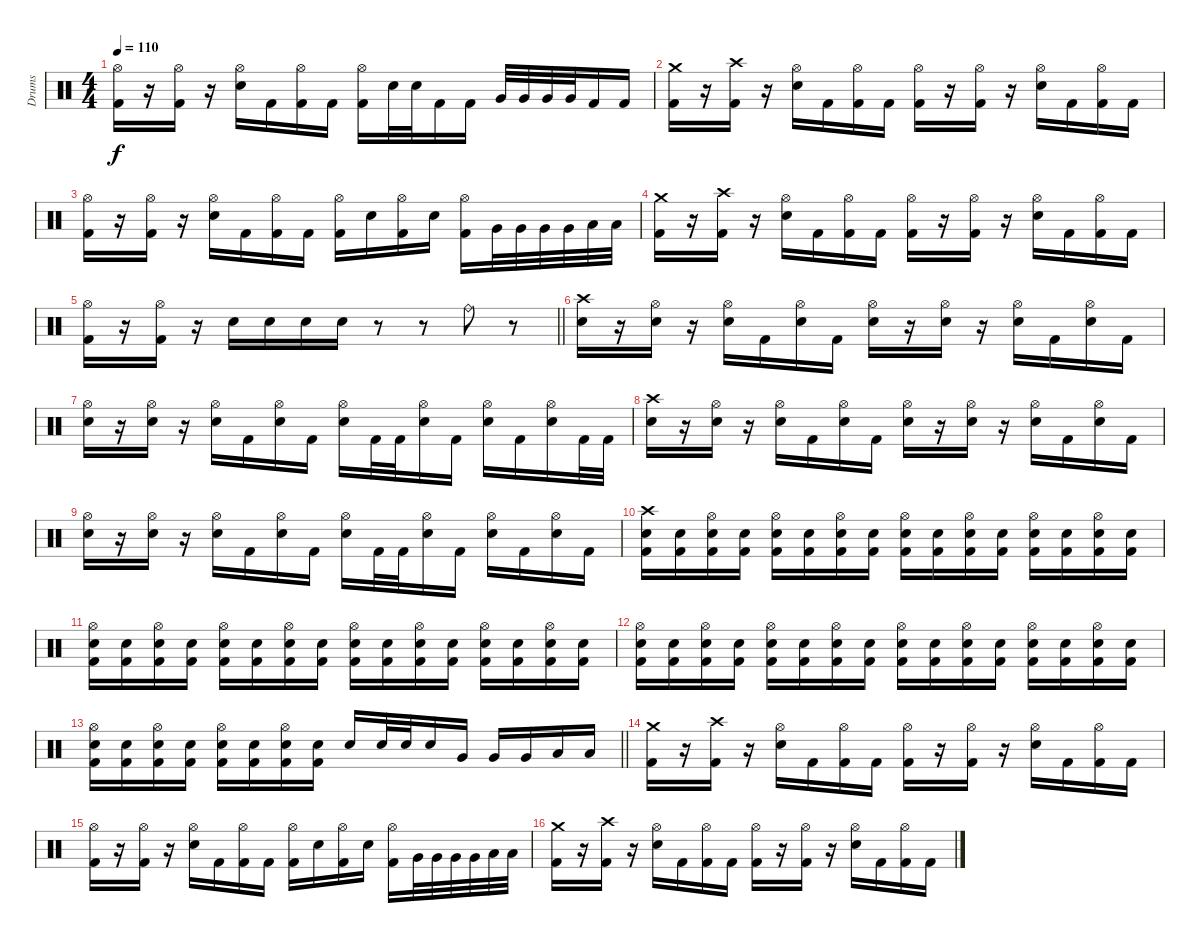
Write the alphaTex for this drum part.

\track ("Drums" "Drums") {instrument percussion}
\staff {score}
\articulation defaults
\ts (4 4)
\tempo 110
\clef neutral
\ks c
("Hi-Hat (open)" "Kick (hit) 2").16{dy f} r.16 ("Hi-Hat (open)" "Kick (hit) 2").16 r.16 ("Hi-Hat (open)" "Electric Snare (hit)").16 "Kick (hit) 2".16 ("Hi-Hat (open)" "Kick (hit) 2").16 "Kick (hit) 2".16 ("Hi-Hat (open)" "Kick (hit) 2").16 "Electric Snare (hit)".32 "Electric Snare (hit)".32 "Kick (hit) 2".16 "Kick (hit) 2".16 "Very Low Tom (hit)".32 "Very Low Tom (hit)".32 "Very Low Tom (hit)".32 "Very Low Tom (hit)".32 "Kick (hit) 2".16 "Kick (hit) 2".16 |
("Crash medium (hit)" "Kick (hit) 2").16 r.16 ("Crash high (hit)" "Kick (hit) 2").16 r.16 ("Hi-Hat (open)" "Electric Snare (hit)").16 "Kick (hit) 2".16 ("Hi-Hat (open)" "Kick (hit) 2").16 "Kick (hit) 2".16 ("Hi-Hat (open)" "Kick (hit) 2").16 r.16 ("Hi-Hat (open)" "Kick (hit) 2").16 r.16 ("Hi-Hat (open)" "Electric Snare (hit)").16 "Kick (hit) 2".16 ("Hi-Hat (open)" "Kick (hit) 2").16 "Kick (hit) 2".16 |
("Hi-Hat (open)" "Kick (hit) 2").16 r.16 ("Hi-Hat (open)" "Kick (hit) 2").16 r.16 ("Hi-Hat (open)" "Electric Snare (hit)").16 "Kick (hit) 2".16 ("Hi-Hat (open)" "Kick (hit) 2").16 "Kick (hit) 2".16 ("Hi-Hat (open)" "Kick (hit) 2").16 "Electric Snare (hit)".16 ("Hi-Hat (open)" "Kick (hit) 2").16 "Electric Snare (hit)".16 ("Hi-Hat (open)" "Kick (hit) 2").16 "Very Low Tom (hit)".32 "Very Low Tom (hit)".32 "Very Low Tom (hit)".32 "Very Low Tom (hit)".32 "Low Floor Tom (hit)".32 "Low Floor Tom (hit)".32 |
("Crash medium (hit)" "Kick (hit) 2").16 r.16 ("Crash high (hit)" "Kick (hit) 2").16 r.16 ("Hi-Hat (open)" "Electric Snare (hit)").16 "Kick (hit) 2".16 ("Hi-Hat (open)" "Kick (hit) 2").16 "Kick (hit) 2".16 ("Hi-Hat (open)" "Kick (hit) 2").16 r.16 ("Hi-Hat (open)" "Kick (hit) 2").16 r.16 ("Hi-Hat (open)" "Electric Snare (hit)").16 "Kick (hit) 2".16 ("Hi-Hat (open)" "Kick (hit) 2").16 "Kick (hit) 2".16 |
\barLineRight lightlight
("Hi-Hat (open)" "Kick (hit) 2").16 r.16 ("Hi-Hat (open)" "Kick (hit) 2").16 r.16 "Electric Snare (hit)".16 "Electric Snare (hit)".16 "Electric Snare (hit)".16 "Electric Snare (hit)".16 r.8 r.8 "Ride (bell)".8 r.8 |
("Crash high (hit)" "Electric Snare (hit)").16 r.16 ("Hi-Hat (open)" "Electric Snare (hit)").16 r.16 ("Hi-Hat (open)" "Electric Snare (hit)").16 "Kick (hit) 2".16 ("Hi-Hat (open)" "Electric Snare (hit)").16 "Kick (hit) 2".16 ("Hi-Hat (open)" "Electric Snare (hit)").16 r.16 ("Hi-Hat (open)" "Electric Snare (hit)").16 r.16 ("Hi-Hat (open)" "Electric Snare (hit)").16 "Kick (hit) 2".16 ("Hi-Hat (open)" "Electric Snare (hit)").16 "Kick (hit) 2".16 |
("Hi-Hat (open)" "Electric Snare (hit)").16 r.16 ("Hi-Hat (open)" "Electric Snare (hit)").16 r.16 ("Hi-Hat (open)" "Electric Snare (hit)").16 "Kick (hit) 2".16 ("Hi-Hat (open)" "Electric Snare (hit)").16 "Kick (hit) 2".16 ("Hi-Hat (open)" "Electric Snare (hit)").16 "Kick (hit) 2".32 "Kick (hit) 2".32 ("Hi-Hat (open)" "Electric Snare (hit)").16 "Kick (hit) 2".16 ("Hi-Hat (open)" "Electric Snare (hit)").16 "Kick (hit) 2".16 ("Hi-Hat (open)" "Electric Snare (hit)").16 "Kick (hit) 2".32 "Kick (hit) 2".32 |
("Crash high (hit)" "Electric Snare (hit)").16 r.16 ("Hi-Hat (open)" "Electric Snare (hit)").16 r.16 ("Hi-Hat (open)" "Electric Snare (hit)").16 "Kick (hit) 2".16 ("Hi-Hat (open)" "Electric Snare (hit)").16 "Kick (hit) 2".16 ("Hi-Hat (open)" "Electric Snare (hit)").16 r.16 ("Hi-Hat (open)" "Electric Snare (hit)").16 r.16 ("Hi-Hat (open)" "Electric Snare (hit)").16 "Kick (hit) 2".16 ("Hi-Hat (open)" "Electric Snare (hit)").16 "Kick (hit) 2".16 |
("Hi-Hat (open)" "Electric Snare (hit)").16 r.16 ("Hi-Hat (open)" "Electric Snare (hit)").16 r.16 ("Hi-Hat (open)" "Electric Snare (hit)").16 "Kick (hit) 2".16 ("Hi-Hat (open)" "Electric Snare (hit)").16 "Kick (hit) 2".16 ("Hi-Hat (open)" "Electric Snare (hit)").16 "Kick (hit) 2".32 "Kick (hit) 2".32 ("Hi-Hat (open)" "Electric Snare (hit)").16 "Kick (hit) 2".16 ("Hi-Hat (open)" "Electric Snare (hit)").16 "Kick (hit) 2".16 ("Hi-Hat (open)" "Electric Snare (hit)").16 "Kick (hit) 2".16 |
("Crash high (hit)" "Electric Snare (hit)" "Kick (hit) 2").16 ("Electric Snare (hit)" "Kick (hit) 2").16 ("Hi-Hat (open)" "Electric Snare (hit)" "Kick (hit) 2").16 ("Electric Snare (hit)" "Kick (hit) 2").16 ("Hi-Hat (open)" "Electric Snare (hit)" "Kick (hit) 2").16 ("Electric Snare (hit)" "Kick (hit) 2").16 ("Hi-Hat (open)" "Electric Snare (hit)" "Kick (hit) 2").16 ("Electric Snare (hit)" "Kick (hit) 2").16 ("Hi-Hat (open)" "Electric Snare (hit)" "Kick (hit) 2").16 ("Electric Snare (hit)" "Kick (hit) 2").16 ("Hi-Hat (open)" "Electric Snare (hit)" "Kick (hit) 2").16 ("Electric Snare (hit)" "Kick (hit) 2").16 ("Hi-Hat (open)" "Electric Snare (hit)" "Kick (hit) 2").16 ("Electric Snare (hit)" "Kick (hit) 2").16 ("Hi-Hat (open)" "Electric Snare (hit)" "Kick (hit) 2").16 ("Electric Snare (hit)" "Kick (hit) 2").16 |
("Hi-Hat (open)" "Electric Snare (hit)" "Kick (hit) 2").16 ("Electric Snare (hit)" "Kick (hit) 2").16 ("Hi-Hat (open)" "Electric Snare (hit)" "Kick (hit) 2").16 ("Electric Snare (hit)" "Kick (hit) 2").16 ("Hi-Hat (open)" "Electric Snare (hit)" "Kick (hit) 2").16 ("Electric Snare (hit)" "Kick (hit) 2").16 ("Hi-Hat (open)" "Electric Snare (hit)" "Kick (hit) 2").16 ("Electric Snare (hit)" "Kick (hit) 2").16 ("Hi-Hat (open)" "Electric Snare (hit)" "Kick (hit) 2").16 ("Electric Snare (hit)" "Kick (hit) 2").16 ("Hi-Hat (open)" "Electric Snare (hit)" "Kick (hit) 2").16 ("Electric Snare (hit)" "Kick (hit) 2").16 ("Hi-Hat (open)" "Electric Snare (hit)" "Kick (hit) 2").16 ("Electric Snare (hit)" "Kick (hit) 2").16 ("Hi-Hat (open)" "Electric Snare (hit)" "Kick (hit) 2").16 ("Electric Snare (hit)" "Kick (hit) 2").16 |
("Hi-Hat (open)" "Electric Snare (hit)" "Kick (hit) 2").16 ("Electric Snare (hit)" "Kick (hit) 2").16 ("Hi-Hat (open)" "Electric Snare (hit)" "Kick (hit) 2").16 ("Electric Snare (hit)" "Kick (hit) 2").16 ("Hi-Hat (open)" "Electric Snare (hit)" "Kick (hit) 2").16 ("Electric Snare (hit)" "Kick (hit) 2").16 ("Hi-Hat (open)" "Electric Snare (hit)" "Kick (hit) 2").16 ("Electric Snare (hit)" "Kick (hit) 2").16 ("Hi-Hat (open)" "Electric Snare (hit)" "Kick (hit) 2").16 ("Electric Snare (hit)" "Kick (hit) 2").16 ("Hi-Hat (open)" "Electric Snare (hit)" "Kick (hit) 2").16 ("Electric Snare (hit)" "Kick (hit) 2").16 ("Hi-Hat (open)" "Electric Snare (hit)" "Kick (hit) 2").16 ("Electric Snare (hit)" "Kick (hit) 2").16 ("Hi-Hat (open)" "Electric Snare (hit)" "Kick (hit) 2").16 ("Electric Snare (hit)" "Kick (hit) 2").16 |
\barLineRight lightlight
("Hi-Hat (open)" "Electric Snare (hit)" "Kick (hit) 2").16 ("Electric Snare (hit)" "Kick (hit) 2").16 ("Hi-Hat (open)" "Electric Snare (hit)" "Kick (hit) 2").16 ("Electric Snare (hit)" "Kick (hit) 2").16 ("Hi-Hat (open)" "Electric Snare (hit)" "Kick (hit) 2").16 ("Electric Snare (hit)" "Kick (hit) 2").16 ("Hi-Hat (open)" "Electric Snare (hit)" "Kick (hit) 2").16 ("Electric Snare (hit)" "Kick (hit) 2").16 "Electric Snare (hit)".16 "Electric Snare (hit)".32 "Electric Snare (hit)".32 "Electric Snare (hit)".16 "Very Low Tom (hit)".16 "Very Low Tom (hit)".16 "Very Low Tom (hit)".16 "Low Floor Tom (hit)".16 "Low Floor Tom (hit)".16 |
("Crash medium (hit)" "Kick (hit) 2").16 r.16 ("Crash high (hit)" "Kick (hit) 2").16 r.16 ("Hi-Hat (open)" "Electric Snare (hit)").16 "Kick (hit) 2".16 ("Hi-Hat (open)" "Kick (hit) 2").16 "Kick (hit) 2".16 ("Hi-Hat (open)" "Kick (hit) 2").16 r.16 ("Hi-Hat (open)" "Kick (hit) 2").16 r.16 ("Hi-Hat (open)" "Electric Snare (hit)").16 "Kick (hit) 2".16 ("Hi-Hat (open)" "Kick (hit) 2").16 "Kick (hit) 2".16 |
("Hi-Hat (open)" "Kick (hit) 2").16 r.16 ("Hi-Hat (open)" "Kick (hit) 2").16 r.16 ("Hi-Hat (open)" "Electric Snare (hit)").16 "Kick (hit) 2".16 ("Hi-Hat (open)" "Kick (hit) 2").16 "Kick (hit) 2".16 ("Hi-Hat (open)" "Kick (hit) 2").16 "Electric Snare (hit)".16 ("Hi-Hat (open)" "Kick (hit) 2").16 "Electric Snare (hit)".16 ("Hi-Hat (open)" "Kick (hit) 2").16 "Very Low Tom (hit)".32 "Very Low Tom (hit)".32 "Very Low Tom (hit)".32 "Very Low Tom (hit)".32 "Low Floor Tom (hit)".32 "Low Floor Tom (hit)".32 |
("Crash medium (hit)" "Kick (hit) 2").16 r.16 ("Crash high (hit)" "Kick (hit) 2").16 r.16 ("Hi-Hat (open)" "Electric Snare (hit)").16 "Kick (hit) 2".16 ("Hi-Hat (open)" "Kick (hit) 2").16 "Kick (hit) 2".16 ("Hi-Hat (open)" "Kick (hit) 2").16 r.16 ("Hi-Hat (open)" "Kick (hit) 2").16 r.16 ("Hi-Hat (open)" "Electric Snare (hit)").16 "Kick (hit) 2".16 ("Hi-Hat (open)" "Kick (hit) 2").16 "Kick (hit) 2".16
